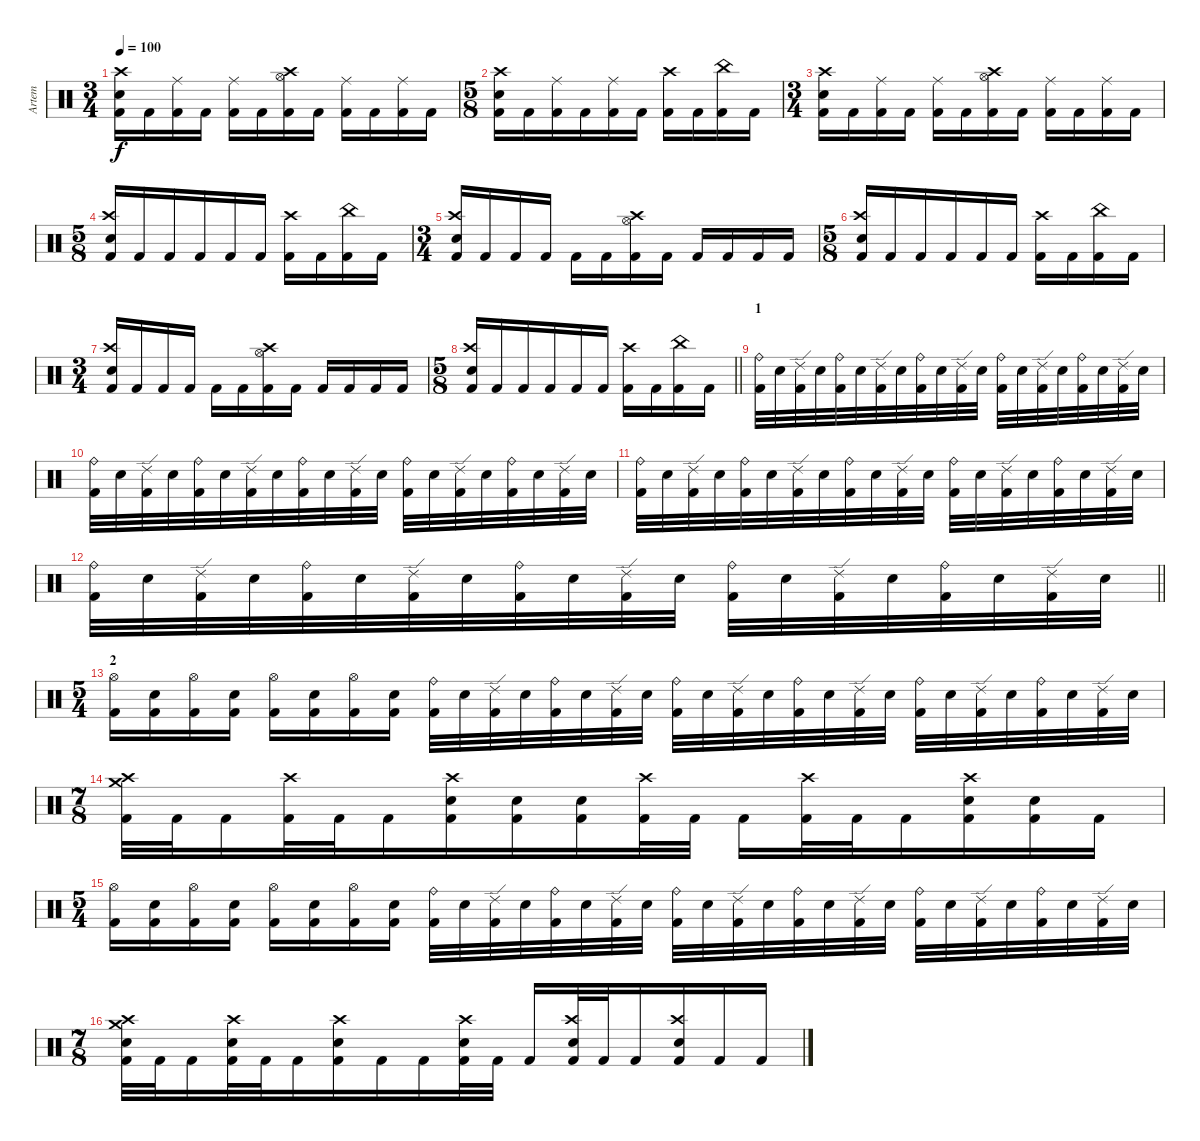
\track ("Artem" "Artem") {instrument percussion}
\staff {score}
\articulation defaults
\ts (3 4)
\tempo 100
\clef neutral
\ks c
("Kick (hit) 2" "Crash high (hit)" "Snare (hit) 2").16{dy f} "Kick (hit) 2".16 ("Kick (hit) 2" "Ride (middle)").16 "Kick (hit) 2".16 ("Kick (hit) 2" "Ride (middle)").16 "Kick (hit) 2".16 ("Crash high (hit)" "Hi-Hat (open)" "Kick (hit) 2").16 "Kick (hit) 2".16 ("Kick (hit) 2" "Ride (middle)").16 "Kick (hit) 2".16 ("Kick (hit) 2" "Ride (middle)").16 "Kick (hit) 2".16 |
\ts (5 8)
("Kick (hit) 2" "Crash high (hit)" "Snare (hit) 2").16 "Kick (hit) 2".16 ("Kick (hit) 2" "Ride (middle)").16 "Kick (hit) 2".16 ("Kick (hit) 2" "Ride (middle)").16 "Kick (hit) 2".16 ("Crash high (hit)" "Kick (hit) 2").16 "Kick (hit) 2".16 ("Kick (hit) 2" "China (hit)").16 "Kick (hit) 2".16 |
\ts (3 4)
("Kick (hit) 2" "Crash high (hit)" "Snare (hit) 2").16 "Kick (hit) 2".16 ("Kick (hit) 2" "Ride (middle)").16 "Kick (hit) 2".16 ("Kick (hit) 2" "Ride (middle)").16 "Kick (hit) 2".16 ("Crash high (hit)" "Hi-Hat (open)" "Kick (hit) 2").16 "Kick (hit) 2".16 ("Kick (hit) 2" "Ride (middle)").16 "Kick (hit) 2".16 ("Kick (hit) 2" "Ride (middle)").16 "Kick (hit) 2".16 |
\ts (5 8)
("Kick (hit) 2" "Crash high (hit)" "Snare (hit) 2").16 "Kick (hit) 2".16 "Kick (hit) 2".16 "Kick (hit) 2".16 "Kick (hit) 2".16 "Kick (hit) 2".16 ("Crash high (hit)" "Kick (hit) 2").16 "Kick (hit) 2".16 ("Kick (hit) 2" "China (hit)").16 "Kick (hit) 2".16 |
\ts (3 4)
("Kick (hit) 2" "Crash high (hit)" "Snare (hit) 2").16 "Kick (hit) 2".16 "Kick (hit) 2".16 "Kick (hit) 2".16 "Kick (hit) 2".16 "Kick (hit) 2".16 ("Crash high (hit)" "Hi-Hat (open)" "Kick (hit) 2").16 "Kick (hit) 2".16 "Kick (hit) 2".16 "Kick (hit) 2".16 "Kick (hit) 2".16 "Kick (hit) 2".16 |
\ts (5 8)
("Kick (hit) 2" "Crash high (hit)" "Snare (hit) 2").16 "Kick (hit) 2".16 "Kick (hit) 2".16 "Kick (hit) 2".16 "Kick (hit) 2".16 "Kick (hit) 2".16 ("Crash high (hit)" "Kick (hit) 2").16 "Kick (hit) 2".16 ("Kick (hit) 2" "China (hit)").16 "Kick (hit) 2".16 |
\ts (3 4)
("Kick (hit) 2" "Crash high (hit)" "Snare (hit) 2").16 "Kick (hit) 2".16 "Kick (hit) 2".16 "Kick (hit) 2".16 "Kick (hit) 2".16 "Kick (hit) 2".16 ("Crash high (hit)" "Hi-Hat (open)" "Kick (hit) 2").16 "Kick (hit) 2".16 "Kick (hit) 2".16 "Kick (hit) 2".16 "Kick (hit) 2".16 "Kick (hit) 2".16 |
\ts (5 8)
\barLineRight lightlight
("Kick (hit) 2" "Crash high (hit)" "Snare (hit) 2").16 "Kick (hit) 2".16 "Kick (hit) 2".16 "Kick (hit) 2".16 "Kick (hit) 2".16 "Kick (hit) 2".16 ("Crash high (hit)" "Kick (hit) 2").16 "Kick (hit) 2".16 ("Kick (hit) 2" "China (hit)").16 "Kick (hit) 2".16 |
\section ("" "1")
("Kick (hit) 2" "Ride (bell)").32 "Snare (hit) 2".32 ("Kick (hit) 2" "Ride (edge) 2").32 "Snare (hit) 2".32 ("Kick (hit) 2" "Ride (bell)").32 "Snare (hit) 2".32 ("Kick (hit) 2" "Ride (edge) 2").32 "Snare (hit) 2".32 ("Kick (hit) 2" "Ride (bell)").32 "Snare (hit) 2".32 ("Kick (hit) 2" "Ride (edge) 2").32 "Snare (hit) 2".32 ("Kick (hit) 2" "Ride (bell)").32 "Snare (hit) 2".32 ("Kick (hit) 2" "Ride (edge) 2").32 "Snare (hit) 2".32 ("Kick (hit) 2" "Ride (bell)").32 "Snare (hit) 2".32 ("Kick (hit) 2" "Ride (edge) 2").32 "Snare (hit) 2".32 |
("Kick (hit) 2" "Ride (bell)").32 "Snare (hit) 2".32 ("Kick (hit) 2" "Ride (edge) 2").32 "Snare (hit) 2".32 ("Kick (hit) 2" "Ride (bell)").32 "Snare (hit) 2".32 ("Kick (hit) 2" "Ride (edge) 2").32 "Snare (hit) 2".32 ("Kick (hit) 2" "Ride (bell)").32 "Snare (hit) 2".32 ("Kick (hit) 2" "Ride (edge) 2").32 "Snare (hit) 2".32 ("Kick (hit) 2" "Ride (bell)").32 "Snare (hit) 2".32 ("Kick (hit) 2" "Ride (edge) 2").32 "Snare (hit) 2".32 ("Kick (hit) 2" "Ride (bell)").32 "Snare (hit) 2".32 ("Kick (hit) 2" "Ride (edge) 2").32 "Snare (hit) 2".32 |
("Kick (hit) 2" "Ride (bell)").32 "Snare (hit) 2".32 ("Kick (hit) 2" "Ride (edge) 2").32 "Snare (hit) 2".32 ("Kick (hit) 2" "Ride (bell)").32 "Snare (hit) 2".32 ("Kick (hit) 2" "Ride (edge) 2").32 "Snare (hit) 2".32 ("Kick (hit) 2" "Ride (bell)").32 "Snare (hit) 2".32 ("Kick (hit) 2" "Ride (edge) 2").32 "Snare (hit) 2".32 ("Kick (hit) 2" "Ride (bell)").32 "Snare (hit) 2".32 ("Kick (hit) 2" "Ride (edge) 2").32 "Snare (hit) 2".32 ("Kick (hit) 2" "Ride (bell)").32 "Snare (hit) 2".32 ("Kick (hit) 2" "Ride (edge) 2").32 "Snare (hit) 2".32 |
\barLineRight lightlight
("Kick (hit) 2" "Ride (bell)").32 "Snare (hit) 2".32 ("Kick (hit) 2" "Ride (edge) 2").32 "Snare (hit) 2".32 ("Kick (hit) 2" "Ride (bell)").32 "Snare (hit) 2".32 ("Kick (hit) 2" "Ride (edge) 2").32 "Snare (hit) 2".32 ("Kick (hit) 2" "Ride (bell)").32 "Snare (hit) 2".32 ("Kick (hit) 2" "Ride (edge) 2").32 "Snare (hit) 2".32 ("Kick (hit) 2" "Ride (bell)").32 "Snare (hit) 2".32 ("Kick (hit) 2" "Ride (edge) 2").32 "Snare (hit) 2".32 ("Kick (hit) 2" "Ride (bell)").32 "Snare (hit) 2".32 ("Kick (hit) 2" "Ride (edge) 2").32 "Snare (hit) 2".32 |
\ts (5 4)
\section ("" "2")
("Kick (hit) 2" "Hi-Hat (open)").16 ("Kick (hit) 2" "Snare (hit) 2").16 ("Kick (hit) 2" "Hi-Hat (open)").16 ("Kick (hit) 2" "Snare (hit) 2").16 ("Kick (hit) 2" "Hi-Hat (open)").16 ("Kick (hit) 2" "Snare (hit) 2").16 ("Kick (hit) 2" "Hi-Hat (open)").16 ("Kick (hit) 2" "Snare (hit) 2").16 ("Kick (hit) 2" "Ride (bell)").32 "Snare (hit) 2".32 ("Kick (hit) 2" "Ride (edge) 2").32 "Snare (hit) 2".32 ("Kick (hit) 2" "Ride (bell)").32 "Snare (hit) 2".32 ("Kick (hit) 2" "Ride (edge) 2").32 "Snare (hit) 2".32 ("Kick (hit) 2" "Ride (bell)").32 "Snare (hit) 2".32 ("Kick (hit) 2" "Ride (edge) 2").32 "Snare (hit) 2".32 ("Kick (hit) 2" "Ride (bell)").32 "Snare (hit) 2".32 ("Kick (hit) 2" "Ride (edge) 2").32 "Snare (hit) 2".32 ("Kick (hit) 2" "Ride (bell)").32 "Snare (hit) 2".32 ("Kick (hit) 2" "Ride (edge) 2").32 "Snare (hit) 2".32 ("Kick (hit) 2" "Ride (bell)").32 "Snare (hit) 2".32 ("Kick (hit) 2" "Ride (edge) 2").32 "Snare (hit) 2".32 |
\ts (7 8)
("Kick (hit) 2" "Crash high (hit)" "Crash medium (hit)").32 "Kick (hit) 2".32 "Kick (hit) 2".16 ("Kick (hit) 2" "Crash high (hit)").32 "Kick (hit) 2".32 "Kick (hit) 2".16 ("Kick (hit) 2" "Crash high (hit)" "Snare (hit) 2").16 ("Kick (hit) 2" "Snare (hit) 2").16 ("Kick (hit) 2" "Snare (hit) 2").16 ("Kick (hit) 2" "Crash high (hit)").32 "Kick (hit) 2".32 "Kick (hit) 2".16 ("Kick (hit) 2" "Crash high (hit)").32 "Kick (hit) 2".32 "Kick (hit) 2".16 ("Kick (hit) 2" "Crash high (hit)" "Snare (hit) 2").16 ("Kick (hit) 2" "Snare (hit) 2").16 "Kick (hit) 2".16 |
\ts (5 4)
("Kick (hit) 2" "Hi-Hat (open)").16 ("Kick (hit) 2" "Snare (hit) 2").16 ("Kick (hit) 2" "Hi-Hat (open)").16 ("Kick (hit) 2" "Snare (hit) 2").16 ("Kick (hit) 2" "Hi-Hat (open)").16 ("Kick (hit) 2" "Snare (hit) 2").16 ("Kick (hit) 2" "Hi-Hat (open)").16 ("Kick (hit) 2" "Snare (hit) 2").16 ("Kick (hit) 2" "Ride (bell)").32 "Snare (hit) 2".32 ("Kick (hit) 2" "Ride (edge) 2").32 "Snare (hit) 2".32 ("Kick (hit) 2" "Ride (bell)").32 "Snare (hit) 2".32 ("Kick (hit) 2" "Ride (edge) 2").32 "Snare (hit) 2".32 ("Kick (hit) 2" "Ride (bell)").32 "Snare (hit) 2".32 ("Kick (hit) 2" "Ride (edge) 2").32 "Snare (hit) 2".32 ("Kick (hit) 2" "Ride (bell)").32 "Snare (hit) 2".32 ("Kick (hit) 2" "Ride (edge) 2").32 "Snare (hit) 2".32 ("Kick (hit) 2" "Ride (bell)").32 "Snare (hit) 2".32 ("Kick (hit) 2" "Ride (edge) 2").32 "Snare (hit) 2".32 ("Kick (hit) 2" "Ride (bell)").32 "Snare (hit) 2".32 ("Kick (hit) 2" "Ride (edge) 2").32 "Snare (hit) 2".32 |
\ts (7 8)
("Kick (hit) 2" "Crash high (hit)" "Snare (hit) 2" "Crash medium (hit)").32 "Kick (hit) 2".32 "Kick (hit) 2".16 ("Kick (hit) 2" "Crash high (hit)" "Snare (hit) 2").32 "Kick (hit) 2".32 "Kick (hit) 2".16 ("Kick (hit) 2" "Crash high (hit)" "Snare (hit) 2").16 "Kick (hit) 2".16 "Kick (hit) 2".16 ("Kick (hit) 2" "Crash high (hit)" "Snare (hit) 2").32 "Kick (hit) 2".32 "Kick (hit) 2".16 ("Kick (hit) 2" "Crash high (hit)" "Snare (hit) 2").32 "Kick (hit) 2".32 "Kick (hit) 2".16 ("Kick (hit) 2" "Crash high (hit)" "Snare (hit) 2").16 "Kick (hit) 2".16 "Kick (hit) 2".16
